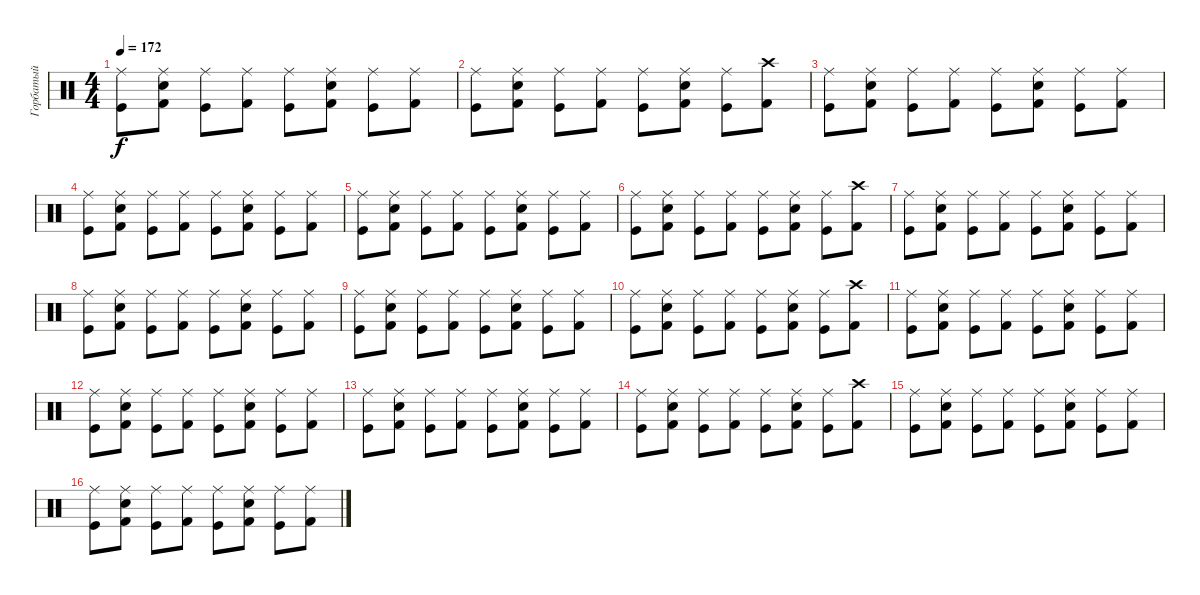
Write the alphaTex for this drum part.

\track ("Горбатый" "Горбатый") {instrument percussion}
\staff {score}
\articulation defaults
\ts (4 4)
\tempo 172
\clef neutral
\ks c
("Ride (middle)" "Kick (hit)").8{dy f} ("Electric Snare (hit)" "Ride (middle)" "Kick (hit) 2").8 ("Ride (middle)" "Kick (hit)").8 ("Ride (middle)" "Kick (hit) 2").8 ("Ride (middle)" "Kick (hit)").8 ("Electric Snare (hit)" "Ride (middle)" "Kick (hit) 2").8 ("Ride (middle)" "Kick (hit)").8 ("Ride (middle)" "Kick (hit) 2").8 |
("Ride (middle)" "Kick (hit)").8 ("Electric Snare (hit)" "Ride (middle)" "Kick (hit) 2").8 ("Ride (middle)" "Kick (hit)").8 ("Ride (middle)" "Kick (hit) 2").8 ("Ride (middle)" "Kick (hit)").8 ("Electric Snare (hit)" "Ride (middle)" "Kick (hit) 2").8 ("Ride (middle)" "Kick (hit)").8 ("Crash high (hit)" "Kick (hit) 2").8 |
("Ride (middle)" "Kick (hit)").8 ("Electric Snare (hit)" "Ride (middle)" "Kick (hit) 2").8 ("Ride (middle)" "Kick (hit)").8 ("Ride (middle)" "Kick (hit) 2").8 ("Ride (middle)" "Kick (hit)").8 ("Electric Snare (hit)" "Ride (middle)" "Kick (hit) 2").8 ("Ride (middle)" "Kick (hit)").8 ("Ride (middle)" "Kick (hit) 2").8 |
("Ride (middle)" "Kick (hit)").8 ("Electric Snare (hit)" "Ride (middle)" "Kick (hit) 2").8 ("Ride (middle)" "Kick (hit)").8 ("Ride (middle)" "Kick (hit) 2").8 ("Ride (middle)" "Kick (hit)").8 ("Electric Snare (hit)" "Ride (middle)" "Kick (hit) 2").8 ("Ride (middle)" "Kick (hit)").8 ("Ride (middle)" "Kick (hit) 2").8 |
("Ride (middle)" "Kick (hit)").8 ("Electric Snare (hit)" "Ride (middle)" "Kick (hit) 2").8 ("Ride (middle)" "Kick (hit)").8 ("Ride (middle)" "Kick (hit) 2").8 ("Ride (middle)" "Kick (hit)").8 ("Electric Snare (hit)" "Ride (middle)" "Kick (hit) 2").8 ("Ride (middle)" "Kick (hit)").8 ("Ride (middle)" "Kick (hit) 2").8 |
("Ride (middle)" "Kick (hit)").8 ("Electric Snare (hit)" "Ride (middle)" "Kick (hit) 2").8 ("Ride (middle)" "Kick (hit)").8 ("Ride (middle)" "Kick (hit) 2").8 ("Ride (middle)" "Kick (hit)").8 ("Electric Snare (hit)" "Ride (middle)" "Kick (hit) 2").8 ("Ride (middle)" "Kick (hit)").8 ("Crash high (hit)" "Kick (hit) 2").8 |
("Ride (middle)" "Kick (hit)").8 ("Electric Snare (hit)" "Ride (middle)" "Kick (hit) 2").8 ("Ride (middle)" "Kick (hit)").8 ("Ride (middle)" "Kick (hit) 2").8 ("Ride (middle)" "Kick (hit)").8 ("Electric Snare (hit)" "Ride (middle)" "Kick (hit) 2").8 ("Ride (middle)" "Kick (hit)").8 ("Ride (middle)" "Kick (hit) 2").8 |
("Ride (middle)" "Kick (hit)").8 ("Electric Snare (hit)" "Ride (middle)" "Kick (hit) 2").8 ("Ride (middle)" "Kick (hit)").8 ("Ride (middle)" "Kick (hit) 2").8 ("Ride (middle)" "Kick (hit)").8 ("Electric Snare (hit)" "Ride (middle)" "Kick (hit) 2").8 ("Ride (middle)" "Kick (hit)").8 ("Ride (middle)" "Kick (hit) 2").8 |
("Ride (middle)" "Kick (hit)").8 ("Electric Snare (hit)" "Ride (middle)" "Kick (hit) 2").8 ("Ride (middle)" "Kick (hit)").8 ("Ride (middle)" "Kick (hit) 2").8 ("Ride (middle)" "Kick (hit)").8 ("Electric Snare (hit)" "Ride (middle)" "Kick (hit) 2").8 ("Ride (middle)" "Kick (hit)").8 ("Ride (middle)" "Kick (hit) 2").8 |
("Ride (middle)" "Kick (hit)").8 ("Electric Snare (hit)" "Ride (middle)" "Kick (hit) 2").8 ("Ride (middle)" "Kick (hit)").8 ("Ride (middle)" "Kick (hit) 2").8 ("Ride (middle)" "Kick (hit)").8 ("Electric Snare (hit)" "Ride (middle)" "Kick (hit) 2").8 ("Ride (middle)" "Kick (hit)").8 ("Crash high (hit)" "Kick (hit) 2").8 |
("Ride (middle)" "Kick (hit)").8 ("Electric Snare (hit)" "Ride (middle)" "Kick (hit) 2").8 ("Ride (middle)" "Kick (hit)").8 ("Ride (middle)" "Kick (hit) 2").8 ("Ride (middle)" "Kick (hit)").8 ("Electric Snare (hit)" "Ride (middle)" "Kick (hit) 2").8 ("Ride (middle)" "Kick (hit)").8 ("Ride (middle)" "Kick (hit) 2").8 |
("Ride (middle)" "Kick (hit)").8 ("Electric Snare (hit)" "Ride (middle)" "Kick (hit) 2").8 ("Ride (middle)" "Kick (hit)").8 ("Ride (middle)" "Kick (hit) 2").8 ("Ride (middle)" "Kick (hit)").8 ("Electric Snare (hit)" "Ride (middle)" "Kick (hit) 2").8 ("Ride (middle)" "Kick (hit)").8 ("Ride (middle)" "Kick (hit) 2").8 |
("Ride (middle)" "Kick (hit)").8 ("Electric Snare (hit)" "Ride (middle)" "Kick (hit) 2").8 ("Ride (middle)" "Kick (hit)").8 ("Ride (middle)" "Kick (hit) 2").8 ("Ride (middle)" "Kick (hit)").8 ("Electric Snare (hit)" "Ride (middle)" "Kick (hit) 2").8 ("Ride (middle)" "Kick (hit)").8 ("Ride (middle)" "Kick (hit) 2").8 |
("Ride (middle)" "Kick (hit)").8 ("Electric Snare (hit)" "Ride (middle)" "Kick (hit) 2").8 ("Ride (middle)" "Kick (hit)").8 ("Ride (middle)" "Kick (hit) 2").8 ("Ride (middle)" "Kick (hit)").8 ("Electric Snare (hit)" "Ride (middle)" "Kick (hit) 2").8 ("Ride (middle)" "Kick (hit)").8 ("Crash high (hit)" "Kick (hit) 2").8 |
("Ride (middle)" "Kick (hit)").8 ("Electric Snare (hit)" "Ride (middle)" "Kick (hit) 2").8 ("Ride (middle)" "Kick (hit)").8 ("Ride (middle)" "Kick (hit) 2").8 ("Ride (middle)" "Kick (hit)").8 ("Electric Snare (hit)" "Ride (middle)" "Kick (hit) 2").8 ("Ride (middle)" "Kick (hit)").8 ("Ride (middle)" "Kick (hit) 2").8 |
("Ride (middle)" "Kick (hit)").8 ("Electric Snare (hit)" "Ride (middle)" "Kick (hit) 2").8 ("Ride (middle)" "Kick (hit)").8 ("Ride (middle)" "Kick (hit) 2").8 ("Ride (middle)" "Kick (hit)").8 ("Electric Snare (hit)" "Ride (middle)" "Kick (hit) 2").8 ("Ride (middle)" "Kick (hit)").8 ("Ride (middle)" "Kick (hit) 2").8
